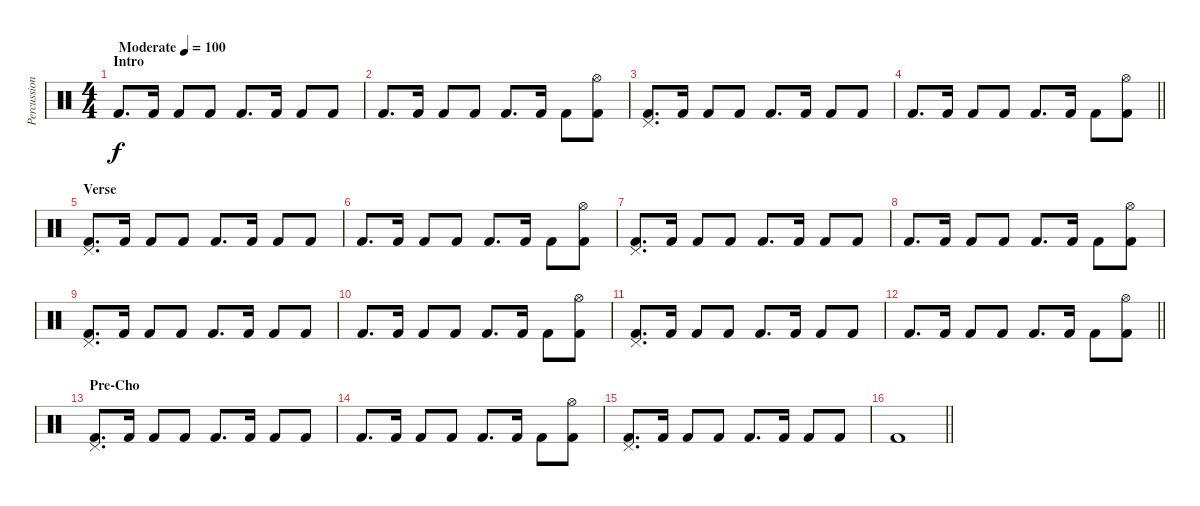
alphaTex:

\track ("Percussion" "Percussion") {instrument percussion}
\staff {score}
\articulation defaults
\ts (4 4)
\section ("" "Intro")
\tempo (100 "Moderate")
\clef neutral
\ks c "Kick (hit) 2".8{d dy f} "Kick (hit) 2".16 "Kick (hit) 2".8 "Kick (hit) 2".8 "Kick (hit) 2".8{d} "Kick (hit) 2".16 "Kick (hit) 2".8 "Kick (hit) 2".8
|
"Kick (hit) 2".8{d} "Kick (hit) 2".16 "Kick (hit) 2".8 "Kick (hit) 2".8 "Kick (hit) 2".8{d} "Kick (hit) 2".16 "Kick (hit) 2".8 ("Hi-Hat (open)" "Kick (hit) 2").8 |
("Pedal Hi-Hat (hit)" "Kick (hit) 2").8{d} "Kick (hit) 2".16 "Kick (hit) 2".8 "Kick (hit) 2".8 "Kick (hit) 2".8{d} "Kick (hit) 2".16 "Kick (hit) 2".8 "Kick (hit) 2".8 |
\barLineRight lightlight "Kick (hit) 2".8{d} "Kick (hit) 2".16 "Kick (hit) 2".8 "Kick (hit) 2".8 "Kick (hit) 2".8{d} "Kick (hit) 2".16 "Kick (hit) 2".8
("Hi-Hat (open)" "Kick (hit) 2").8 |
\section ("" "Verse")
("Pedal Hi-Hat (hit)" "Kick (hit) 2").8{d} "Kick (hit) 2".16 "Kick (hit) 2".8 "Kick (hit) 2".8 "Kick (hit) 2".8{d} "Kick (hit) 2".16 "Kick (hit) 2".8 "Kick (hit) 2".8 |
"Kick (hit) 2".8{d} "Kick (hit) 2".16 "Kick (hit) 2".8 "Kick (hit) 2".8 "Kick (hit) 2".8{d} "Kick (hit) 2".16 "Kick (hit) 2".8 ("Hi-Hat (open)" "Kick (hit) 2").8 |
("Pedal Hi-Hat (hit)" "Kick (hit) 2").8{d} "Kick (hit) 2".16 "Kick (hit) 2".8 "Kick (hit) 2".8 "Kick (hit) 2".8{d} "Kick (hit) 2".16 "Kick (hit) 2".8 "Kick (hit) 2".8 |
"Kick (hit) 2".8{d} "Kick (hit) 2".16 "Kick (hit) 2".8 "Kick (hit) 2".8 "Kick (hit) 2".8{d} "Kick (hit) 2".16 "Kick (hit) 2".8 ("Hi-Hat (open)" "Kick (hit) 2").8 |
("Pedal Hi-Hat (hit)" "Kick (hit) 2").8{d} "Kick (hit) 2".16 "Kick (hit) 2".8 "Kick (hit) 2".8 "Kick (hit) 2".8{d} "Kick (hit) 2".16 "Kick (hit) 2".8 "Kick (hit) 2".8 |
"Kick (hit) 2".8{d} "Kick (hit) 2".16 "Kick (hit) 2".8 "Kick (hit) 2".8 "Kick (hit) 2".8{d} "Kick (hit) 2".16 "Kick (hit) 2".8 ("Hi-Hat (open)" "Kick (hit) 2").8 |
("Pedal Hi-Hat (hit)" "Kick (hit) 2").8{d} "Kick (hit) 2".16 "Kick (hit) 2".8 "Kick (hit) 2".8 "Kick (hit) 2".8{d} "Kick (hit) 2".16 "Kick (hit) 2".8 "Kick (hit) 2".8 |
\barLineRight lightlight "Kick (hit) 2".8{d} "Kick (hit) 2".16 "Kick (hit) 2".8 "Kick (hit) 2".8 "Kick (hit) 2".8{d} "Kick (hit) 2".16 "Kick (hit) 2".8
("Hi-Hat (open)" "Kick (hit) 2").8 |
\section ("" "Pre-Cho")
("Pedal Hi-Hat (hit)" "Kick (hit) 2").8{d} "Kick (hit) 2".16 "Kick (hit) 2".8 "Kick (hit) 2".8 "Kick (hit) 2".8{d} "Kick (hit) 2".16 "Kick (hit) 2".8 "Kick (hit) 2".8 |
"Kick (hit) 2".8{d} "Kick (hit) 2".16 "Kick (hit) 2".8 "Kick (hit) 2".8 "Kick (hit) 2".8{d} "Kick (hit) 2".16 "Kick (hit) 2".8 ("Hi-Hat (open)" "Kick (hit) 2").8 |
("Pedal Hi-Hat (hit)" "Kick (hit) 2").8{d} "Kick (hit) 2".16 "Kick (hit) 2".8 "Kick (hit) 2".8 "Kick (hit) 2".8{d} "Kick (hit) 2".16 "Kick (hit) 2".8 "Kick (hit) 2".8 |
\barLineRight lightlight "Kick (hit) 2".1
